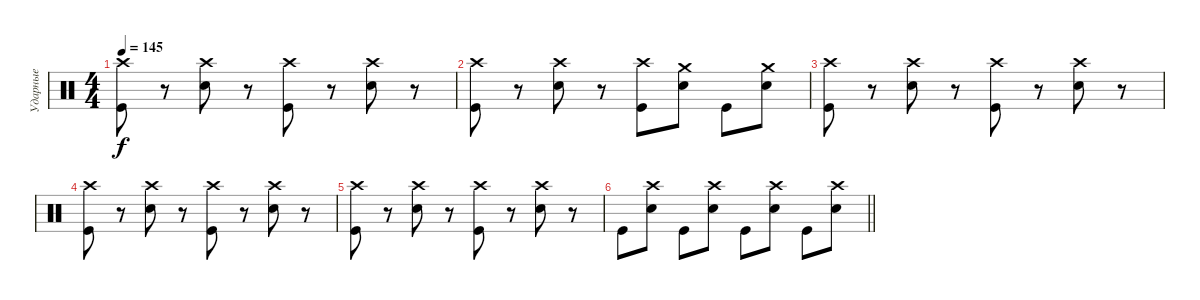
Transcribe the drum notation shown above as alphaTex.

\track ("Ударные" "Ударные") {instrument percussion}
\staff {score}
\articulation defaults
\ts (4 4)
\tempo 145
\clef neutral
\ks c
("Crash high (hit)" "Kick (hit)").8{dy f} r.8 ("Crash high (hit)" "Electric Snare (hit)").8 r.8 ("Crash high (hit)" "Kick (hit)").8 r.8 ("Crash high (hit)" "Electric Snare (hit)").8 r.8 |
("Crash high (hit)" "Kick (hit)").8 r.8 ("Crash high (hit)" "Electric Snare (hit)").8 r.8 ("Crash high (hit)" "Kick (hit)").8 ("Crash medium (hit)" "Electric Snare (hit)").8 "Kick (hit)".8 ("Crash medium (hit)" "Electric Snare (hit)").8 |
("Crash high (hit)" "Kick (hit)").8 r.8 ("Crash high (hit)" "Electric Snare (hit)").8 r.8 ("Crash high (hit)" "Kick (hit)").8 r.8 ("Crash high (hit)" "Electric Snare (hit)").8 r.8 |
("Crash high (hit)" "Kick (hit)").8 r.8 ("Crash high (hit)" "Electric Snare (hit)").8 r.8 ("Crash high (hit)" "Kick (hit)").8 r.8 ("Crash high (hit)" "Electric Snare (hit)").8 r.8 |
("Crash high (hit)" "Kick (hit)").8 r.8 ("Crash high (hit)" "Electric Snare (hit)").8 r.8 ("Crash high (hit)" "Kick (hit)").8 r.8 ("Crash high (hit)" "Electric Snare (hit)").8 r.8 |
\barLineRight lightlight "Kick (hit)".8
("Crash high (hit)" "Electric Snare (hit)").8 "Kick (hit)".8 ("Crash high (hit)" "Electric Snare (hit)").8 "Kick (hit)".8 ("Crash high (hit)" "Electric Snare (hit)").8 "Kick (hit)".8 ("Crash high (hit)" "Electric Snare (hit)").8
